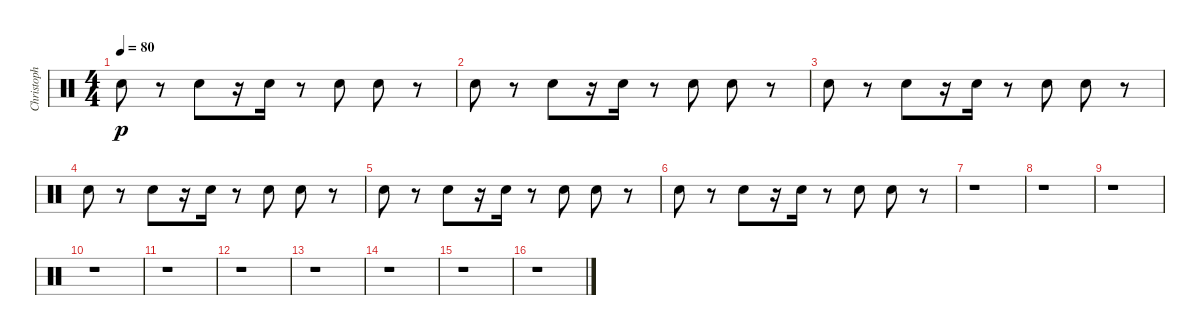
\track ("Christoph DOOM Schneider" "Christoph ") {instrument percussion}
\staff {score}
\articulation defaults
\ts (4 4)
\tempo 80
\clef neutral
\ks c "Electric Snare (hit)".8{dy p}
r.8 "Hand Clap (hit)".8 r.16 "Electric Snare (hit)".16 r.8 "Electric Snare (hit)".8 "Hand Clap (hit)".8 r.8 |
"Electric Snare (hit)".8 r.8 "Hand Clap (hit)".8 r.16 "Electric Snare (hit)".16 r.8 "Electric Snare (hit)".8 "Hand Clap (hit)".8 r.8 |
"Electric Snare (hit)".8 r.8 "Hand Clap (hit)".8 r.16 "Electric Snare (hit)".16 r.8 "Electric Snare (hit)".8 "Hand Clap (hit)".8 r.8 |
"Electric Snare (hit)".8 r.8 "Hand Clap (hit)".8 r.16 "Electric Snare (hit)".16 r.8 "Electric Snare (hit)".8 "Hand Clap (hit)".8 r.8 |
"Electric Snare (hit)".8 r.8 "Hand Clap (hit)".8 r.16 "Electric Snare (hit)".16 r.8 "Electric Snare (hit)".8 "Hand Clap (hit)".8 r.8 |
"Electric Snare (hit)".8 r.8 "Hand Clap (hit)".8 r.16 "Electric Snare (hit)".16 r.8 "Electric Snare (hit)".8 "Hand Clap (hit)".8 r.8 |
r.1 |
r.1 |
r.1 |
r.1 |
r.1 |
r.1 |
r.1 |
r.1 |
r.1 |
r.1
